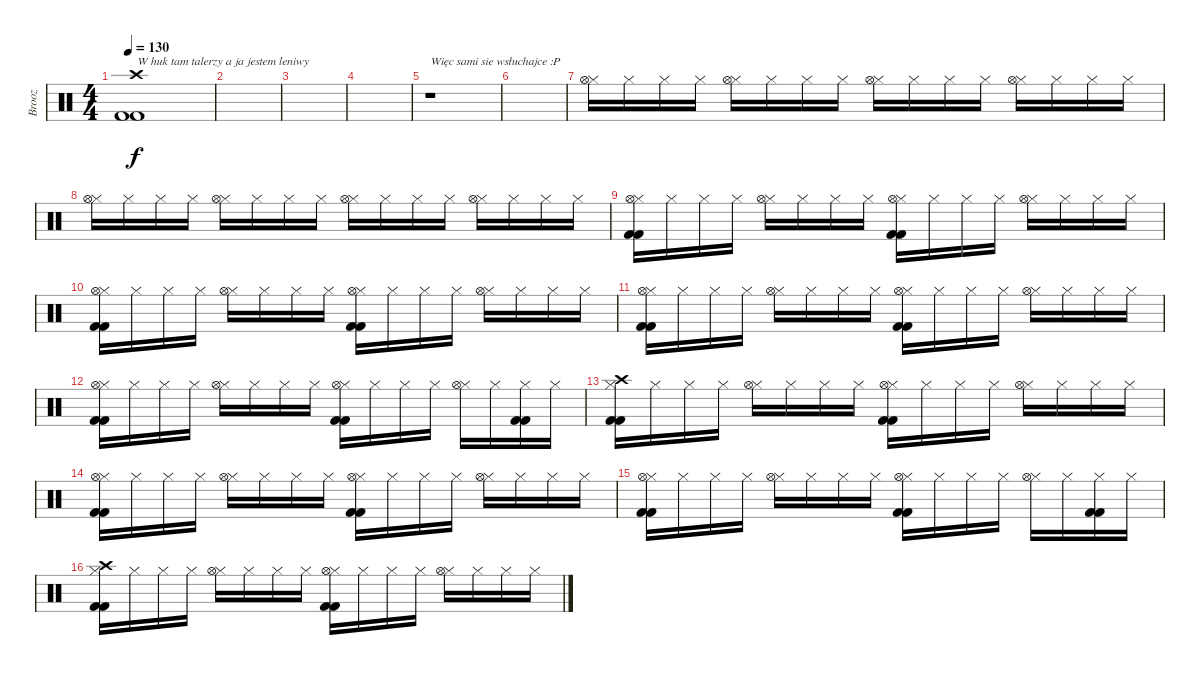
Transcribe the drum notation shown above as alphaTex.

\track ("Brooz" "Brooz") {instrument percussion}
\staff {score}
\articulation defaults
\ts (4 4)
\tempo 130
\clef neutral
\ks c
("Crash high (hit)" "Kick (hit) 2" "Kick (hit) 2").1{txt "W huk tam talerzy a ja jestem leniwy " dy f} |
|
|
|
r.1{txt "Więc sami sie wsłuchajce :P"} |
|
("Hi-Hat (closed)" "Hi-Hat (open)").16 "Hi-Hat (closed)".16 "Hi-Hat (closed)".16 "Hi-Hat (closed)".16 ("Hi-Hat (closed)" "Hi-Hat (open)").16 "Hi-Hat (closed)".16 "Hi-Hat (closed)".16 "Hi-Hat (closed)".16 ("Hi-Hat (closed)" "Hi-Hat (open)").16 "Hi-Hat (closed)".16 "Hi-Hat (closed)".16 "Hi-Hat (closed)".16 ("Hi-Hat (closed)" "Hi-Hat (open)").16 "Hi-Hat (closed)".16 "Hi-Hat (closed)".16 "Hi-Hat (closed)".16 |
("Hi-Hat (closed)" "Hi-Hat (open)").16 "Hi-Hat (closed)".16 "Hi-Hat (closed)".16 "Hi-Hat (closed)".16 ("Hi-Hat (closed)" "Hi-Hat (open)").16 "Hi-Hat (closed)".16 "Hi-Hat (closed)".16 "Hi-Hat (closed)".16 ("Hi-Hat (closed)" "Hi-Hat (open)").16 "Hi-Hat (closed)".16 "Hi-Hat (closed)".16 "Hi-Hat (closed)".16 ("Hi-Hat (closed)" "Hi-Hat (open)").16 "Hi-Hat (closed)".16 "Hi-Hat (closed)".16 "Hi-Hat (closed)".16 |
("Hi-Hat (closed)" "Hi-Hat (open)" "Kick (hit) 2" "Kick (hit) 2").16 "Hi-Hat (closed)".16 "Hi-Hat (closed)".16 "Hi-Hat (closed)".16 ("Hi-Hat (closed)" "Hi-Hat (open)").16 "Hi-Hat (closed)".16 "Hi-Hat (closed)".16 "Hi-Hat (closed)".16 ("Hi-Hat (closed)" "Hi-Hat (open)" "Kick (hit) 2" "Kick (hit) 2").16 "Hi-Hat (closed)".16 "Hi-Hat (closed)".16 "Hi-Hat (closed)".16 ("Hi-Hat (closed)" "Hi-Hat (open)").16 "Hi-Hat (closed)".16 "Hi-Hat (closed)".16 "Hi-Hat (closed)".16 |
("Hi-Hat (closed)" "Hi-Hat (open)" "Kick (hit) 2" "Kick (hit) 2").16 "Hi-Hat (closed)".16 "Hi-Hat (closed)".16 "Hi-Hat (closed)".16 ("Hi-Hat (closed)" "Hi-Hat (open)").16 "Hi-Hat (closed)".16 "Hi-Hat (closed)".16 "Hi-Hat (closed)".16 ("Hi-Hat (closed)" "Hi-Hat (open)" "Kick (hit) 2" "Kick (hit) 2").16 "Hi-Hat (closed)".16 "Hi-Hat (closed)".16 "Hi-Hat (closed)".16 ("Hi-Hat (closed)" "Hi-Hat (open)").16 "Hi-Hat (closed)".16 "Hi-Hat (closed)".16 "Hi-Hat (closed)".16 |
("Hi-Hat (closed)" "Hi-Hat (open)" "Kick (hit) 2" "Kick (hit) 2").16 "Hi-Hat (closed)".16 "Hi-Hat (closed)".16 "Hi-Hat (closed)".16 ("Hi-Hat (closed)" "Hi-Hat (open)").16 "Hi-Hat (closed)".16 "Hi-Hat (closed)".16 "Hi-Hat (closed)".16 ("Hi-Hat (closed)" "Hi-Hat (open)" "Kick (hit) 2" "Kick (hit) 2").16 "Hi-Hat (closed)".16 "Hi-Hat (closed)".16 "Hi-Hat (closed)".16 ("Hi-Hat (closed)" "Hi-Hat (open)").16 "Hi-Hat (closed)".16 "Hi-Hat (closed)".16 "Hi-Hat (closed)".16 |
("Hi-Hat (closed)" "Hi-Hat (open)" "Kick (hit) 2" "Kick (hit) 2").16 "Hi-Hat (closed)".16 "Hi-Hat (closed)".16 "Hi-Hat (closed)".16 ("Hi-Hat (closed)" "Hi-Hat (open)").16 "Hi-Hat (closed)".16 "Hi-Hat (closed)".16 "Hi-Hat (closed)".16 ("Hi-Hat (closed)" "Hi-Hat (open)" "Kick (hit) 2" "Kick (hit) 2").16 "Hi-Hat (closed)".16 "Hi-Hat (closed)".16 "Hi-Hat (closed)".16 ("Hi-Hat (closed)" "Hi-Hat (open)").16 "Hi-Hat (closed)".16 ("Hi-Hat (closed)" "Kick (hit) 2" "Kick (hit) 2").16 "Hi-Hat (closed)".16 |
("Hi-Hat (closed)" "Crash high (hit)" "Kick (hit) 2" "Kick (hit) 2").16 "Hi-Hat (closed)".16 "Hi-Hat (closed)".16 "Hi-Hat (closed)".16 ("Hi-Hat (closed)" "Hi-Hat (open)").16 "Hi-Hat (closed)".16 "Hi-Hat (closed)".16 "Hi-Hat (closed)".16 ("Hi-Hat (closed)" "Hi-Hat (open)" "Kick (hit) 2" "Kick (hit) 2").16 "Hi-Hat (closed)".16 "Hi-Hat (closed)".16 "Hi-Hat (closed)".16 ("Hi-Hat (closed)" "Hi-Hat (open)").16 "Hi-Hat (closed)".16 "Hi-Hat (closed)".16 "Hi-Hat (closed)".16 |
("Hi-Hat (closed)" "Hi-Hat (open)" "Kick (hit) 2" "Kick (hit) 2").16 "Hi-Hat (closed)".16 "Hi-Hat (closed)".16 "Hi-Hat (closed)".16 ("Hi-Hat (closed)" "Hi-Hat (open)").16 "Hi-Hat (closed)".16 "Hi-Hat (closed)".16 "Hi-Hat (closed)".16 ("Hi-Hat (closed)" "Hi-Hat (open)" "Kick (hit) 2" "Kick (hit) 2").16 "Hi-Hat (closed)".16 "Hi-Hat (closed)".16 "Hi-Hat (closed)".16 ("Hi-Hat (closed)" "Hi-Hat (open)").16 "Hi-Hat (closed)".16 "Hi-Hat (closed)".16 "Hi-Hat (closed)".16 |
("Hi-Hat (closed)" "Hi-Hat (open)" "Kick (hit) 2" "Kick (hit) 2").16 "Hi-Hat (closed)".16 "Hi-Hat (closed)".16 "Hi-Hat (closed)".16 ("Hi-Hat (closed)" "Hi-Hat (open)").16 "Hi-Hat (closed)".16 "Hi-Hat (closed)".16 "Hi-Hat (closed)".16 ("Hi-Hat (closed)" "Hi-Hat (open)" "Kick (hit) 2" "Kick (hit) 2").16 "Hi-Hat (closed)".16 "Hi-Hat (closed)".16 "Hi-Hat (closed)".16 ("Hi-Hat (closed)" "Hi-Hat (open)").16 "Hi-Hat (closed)".16 ("Hi-Hat (closed)" "Kick (hit) 2" "Kick (hit) 2").16 "Hi-Hat (closed)".16 |
("Hi-Hat (closed)" "Crash high (hit)" "Kick (hit) 2" "Kick (hit) 2").16 "Hi-Hat (closed)".16 "Hi-Hat (closed)".16 "Hi-Hat (closed)".16 ("Hi-Hat (closed)" "Hi-Hat (open)").16 "Hi-Hat (closed)".16 "Hi-Hat (closed)".16 "Hi-Hat (closed)".16 ("Hi-Hat (closed)" "Hi-Hat (open)" "Kick (hit) 2" "Kick (hit) 2").16 "Hi-Hat (closed)".16 "Hi-Hat (closed)".16 "Hi-Hat (closed)".16 ("Hi-Hat (closed)" "Hi-Hat (open)").16 "Hi-Hat (closed)".16 "Hi-Hat (closed)".16 "Hi-Hat (closed)".16
